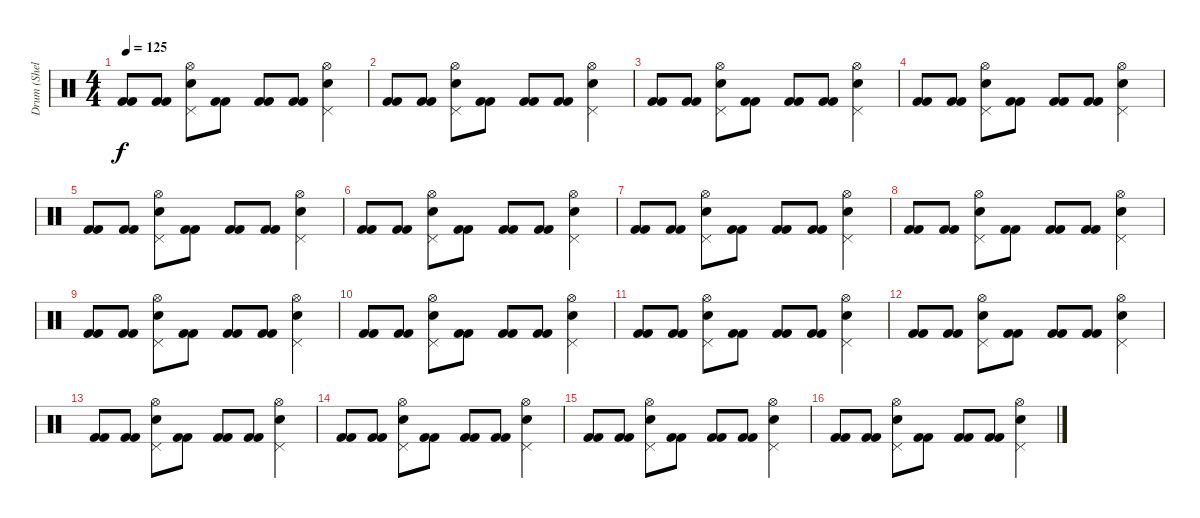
\track ("Drum (Shelley)" "Drum (Shel") {instrument percussion}
\staff {score}
\articulation defaults
\ts (4 4)
\tempo 125
\clef neutral
\ks c
("Kick (hit) 2" "Kick (hit) 2").8{dy f} ("Kick (hit) 2" "Kick (hit) 2").8 ("Pedal Hi-Hat (hit)" "Electric Snare (hit)" "Hi-Hat (open)").8 ("Kick (hit) 2" "Kick (hit) 2").8 ("Kick (hit) 2" "Kick (hit) 2").8 ("Kick (hit) 2" "Kick (hit) 2").8 ("Pedal Hi-Hat (hit)" "Electric Snare (hit)" "Hi-Hat (open)").4 |
("Kick (hit) 2" "Kick (hit) 2").8 ("Kick (hit) 2" "Kick (hit) 2").8 ("Pedal Hi-Hat (hit)" "Electric Snare (hit)" "Hi-Hat (open)").8 ("Kick (hit) 2" "Kick (hit) 2").8 ("Kick (hit) 2" "Kick (hit) 2").8 ("Kick (hit) 2" "Kick (hit) 2").8 ("Pedal Hi-Hat (hit)" "Electric Snare (hit)" "Hi-Hat (open)").4 |
("Kick (hit) 2" "Kick (hit) 2").8 ("Kick (hit) 2" "Kick (hit) 2").8 ("Pedal Hi-Hat (hit)" "Electric Snare (hit)" "Hi-Hat (open)").8 ("Kick (hit) 2" "Kick (hit) 2").8 ("Kick (hit) 2" "Kick (hit) 2").8 ("Kick (hit) 2" "Kick (hit) 2").8 ("Pedal Hi-Hat (hit)" "Electric Snare (hit)" "Hi-Hat (open)").4 |
("Kick (hit) 2" "Kick (hit) 2").8 ("Kick (hit) 2" "Kick (hit) 2").8 ("Pedal Hi-Hat (hit)" "Electric Snare (hit)" "Hi-Hat (open)").8 ("Kick (hit) 2" "Kick (hit) 2").8 ("Kick (hit) 2" "Kick (hit) 2").8 ("Kick (hit) 2" "Kick (hit) 2").8 ("Pedal Hi-Hat (hit)" "Electric Snare (hit)" "Hi-Hat (open)").4 |
("Kick (hit) 2" "Kick (hit) 2").8 ("Kick (hit) 2" "Kick (hit) 2").8 ("Pedal Hi-Hat (hit)" "Electric Snare (hit)" "Hi-Hat (open)").8 ("Kick (hit) 2" "Kick (hit) 2").8 ("Kick (hit) 2" "Kick (hit) 2").8 ("Kick (hit) 2" "Kick (hit) 2").8 ("Pedal Hi-Hat (hit)" "Electric Snare (hit)" "Hi-Hat (open)").4 |
("Kick (hit) 2" "Kick (hit) 2").8 ("Kick (hit) 2" "Kick (hit) 2").8 ("Pedal Hi-Hat (hit)" "Electric Snare (hit)" "Hi-Hat (open)").8 ("Kick (hit) 2" "Kick (hit) 2").8 ("Kick (hit) 2" "Kick (hit) 2").8 ("Kick (hit) 2" "Kick (hit) 2").8 ("Pedal Hi-Hat (hit)" "Electric Snare (hit)" "Hi-Hat (open)").4 |
("Kick (hit) 2" "Kick (hit) 2").8 ("Kick (hit) 2" "Kick (hit) 2").8 ("Pedal Hi-Hat (hit)" "Electric Snare (hit)" "Hi-Hat (open)").8 ("Kick (hit) 2" "Kick (hit) 2").8 ("Kick (hit) 2" "Kick (hit) 2").8 ("Kick (hit) 2" "Kick (hit) 2").8 ("Pedal Hi-Hat (hit)" "Electric Snare (hit)" "Hi-Hat (open)").4 |
("Kick (hit) 2" "Kick (hit) 2").8 ("Kick (hit) 2" "Kick (hit) 2").8 ("Pedal Hi-Hat (hit)" "Electric Snare (hit)" "Hi-Hat (open)").8 ("Kick (hit) 2" "Kick (hit) 2").8 ("Kick (hit) 2" "Kick (hit) 2").8 ("Kick (hit) 2" "Kick (hit) 2").8 ("Pedal Hi-Hat (hit)" "Electric Snare (hit)" "Hi-Hat (open)").4 |
("Kick (hit) 2" "Kick (hit) 2").8 ("Kick (hit) 2" "Kick (hit) 2").8 ("Pedal Hi-Hat (hit)" "Electric Snare (hit)" "Hi-Hat (open)").8 ("Kick (hit) 2" "Kick (hit) 2").8 ("Kick (hit) 2" "Kick (hit) 2").8 ("Kick (hit) 2" "Kick (hit) 2").8 ("Pedal Hi-Hat (hit)" "Electric Snare (hit)" "Hi-Hat (open)").4 |
("Kick (hit) 2" "Kick (hit) 2").8 ("Kick (hit) 2" "Kick (hit) 2").8 ("Pedal Hi-Hat (hit)" "Electric Snare (hit)" "Hi-Hat (open)").8 ("Kick (hit) 2" "Kick (hit) 2").8 ("Kick (hit) 2" "Kick (hit) 2").8 ("Kick (hit) 2" "Kick (hit) 2").8 ("Pedal Hi-Hat (hit)" "Electric Snare (hit)" "Hi-Hat (open)").4 |
("Kick (hit) 2" "Kick (hit) 2").8 ("Kick (hit) 2" "Kick (hit) 2").8 ("Pedal Hi-Hat (hit)" "Electric Snare (hit)" "Hi-Hat (open)").8 ("Kick (hit) 2" "Kick (hit) 2").8 ("Kick (hit) 2" "Kick (hit) 2").8 ("Kick (hit) 2" "Kick (hit) 2").8 ("Pedal Hi-Hat (hit)" "Electric Snare (hit)" "Hi-Hat (open)").4 |
("Kick (hit) 2" "Kick (hit) 2").8 ("Kick (hit) 2" "Kick (hit) 2").8 ("Pedal Hi-Hat (hit)" "Electric Snare (hit)" "Hi-Hat (open)").8 ("Kick (hit) 2" "Kick (hit) 2").8 ("Kick (hit) 2" "Kick (hit) 2").8 ("Kick (hit) 2" "Kick (hit) 2").8 ("Pedal Hi-Hat (hit)" "Electric Snare (hit)" "Hi-Hat (open)").4 |
("Kick (hit) 2" "Kick (hit) 2").8 ("Kick (hit) 2" "Kick (hit) 2").8 ("Pedal Hi-Hat (hit)" "Electric Snare (hit)" "Hi-Hat (open)").8 ("Kick (hit) 2" "Kick (hit) 2").8 ("Kick (hit) 2" "Kick (hit) 2").8 ("Kick (hit) 2" "Kick (hit) 2").8 ("Pedal Hi-Hat (hit)" "Electric Snare (hit)" "Hi-Hat (open)").4 |
("Kick (hit) 2" "Kick (hit) 2").8 ("Kick (hit) 2" "Kick (hit) 2").8 ("Pedal Hi-Hat (hit)" "Electric Snare (hit)" "Hi-Hat (open)").8 ("Kick (hit) 2" "Kick (hit) 2").8 ("Kick (hit) 2" "Kick (hit) 2").8 ("Kick (hit) 2" "Kick (hit) 2").8 ("Pedal Hi-Hat (hit)" "Electric Snare (hit)" "Hi-Hat (open)").4 |
("Kick (hit) 2" "Kick (hit) 2").8 ("Kick (hit) 2" "Kick (hit) 2").8 ("Pedal Hi-Hat (hit)" "Electric Snare (hit)" "Hi-Hat (open)").8 ("Kick (hit) 2" "Kick (hit) 2").8 ("Kick (hit) 2" "Kick (hit) 2").8 ("Kick (hit) 2" "Kick (hit) 2").8 ("Pedal Hi-Hat (hit)" "Electric Snare (hit)" "Hi-Hat (open)").4 |
("Kick (hit) 2" "Kick (hit) 2").8 ("Kick (hit) 2" "Kick (hit) 2").8 ("Pedal Hi-Hat (hit)" "Electric Snare (hit)" "Hi-Hat (open)").8 ("Kick (hit) 2" "Kick (hit) 2").8 ("Kick (hit) 2" "Kick (hit) 2").8 ("Kick (hit) 2" "Kick (hit) 2").8 ("Pedal Hi-Hat (hit)" "Electric Snare (hit)" "Hi-Hat (open)").4
